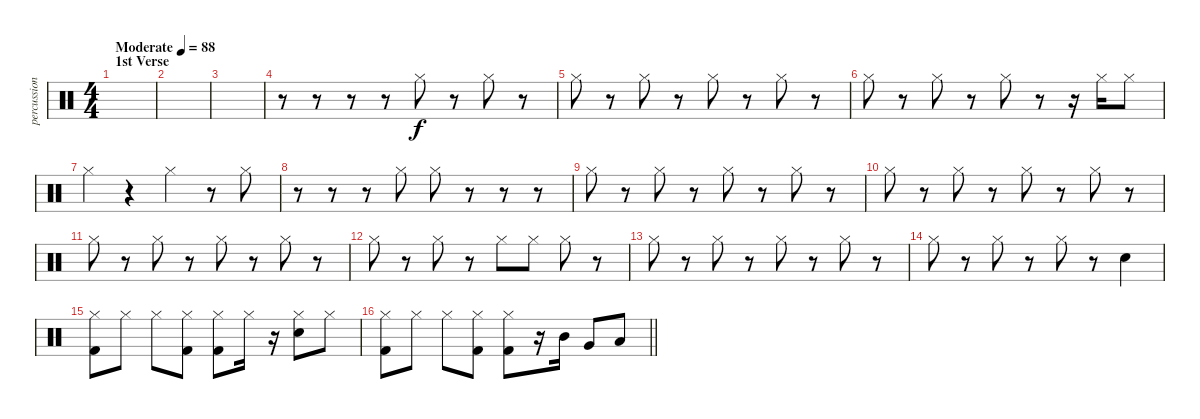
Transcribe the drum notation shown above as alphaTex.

\track ("percussion" "percussion") {instrument percussion}
\staff {score}
\articulation defaults
\ts (4 4)
\section ("" "1st Verse")
\tempo (88 "Moderate")
\clef neutral
\ks c
|
|
|
r.8 r.8 r.8 r.8 "Hi-Hat (closed)".8 r.8 "Hi-Hat (closed)".8 r.8 |
"Hi-Hat (closed)".8 r.8 "Hi-Hat (closed)".8 r.8 "Hi-Hat (closed)".8 r.8 "Hi-Hat (closed)".8 r.8 |
"Hi-Hat (closed)".8 r.8 "Hi-Hat (closed)".8 r.8 "Hi-Hat (closed)".8 r.8 r.16 "Hi-Hat (closed)".16 "Hi-Hat (closed)".8 |
"Hi-Hat (closed)".4 r.4 "Hi-Hat (closed)".4 r.8 "Hi-Hat (closed)".8 |
r.8 r.8 r.8 "Hi-Hat (closed)".8 "Hi-Hat (closed)".8 r.8 r.8 r.8 |
"Hi-Hat (closed)".8 r.8 "Hi-Hat (closed)".8 r.8 "Hi-Hat (closed)".8 r.8 "Hi-Hat (closed)".8 r.8 |
"Hi-Hat (closed)".8 r.8 "Hi-Hat (closed)".8 r.8 "Hi-Hat (closed)".8 r.8 "Hi-Hat (closed)".8 r.8 |
"Hi-Hat (closed)".8 r.8 "Hi-Hat (closed)".8 r.8 "Hi-Hat (closed)".8 r.8 "Hi-Hat (closed)".8 r.8 |
"Hi-Hat (closed)".8 r.8 "Hi-Hat (closed)".8 r.8 "Hi-Hat (closed)".8 "Hi-Hat (closed)".8 "Hi-Hat (closed)".8 r.8 |
"Hi-Hat (closed)".8 r.8 "Hi-Hat (closed)".8 r.8 "Hi-Hat (closed)".8 r.8 "Hi-Hat (closed)".8 r.8 |
"Hi-Hat (closed)".8 r.8 "Hi-Hat (closed)".8 r.8 "Hi-Hat (closed)".8 r.8 "Snare (hit) 2".4 |
("Hi-Hat (closed)" "Kick (hit) 2").8 "Hi-Hat (closed)".8 "Hi-Hat (closed)".8 ("Hi-Hat (closed)" "Kick (hit) 2").8 ("Hi-Hat (closed)" "Kick (hit) 2").8 "Hi-Hat (closed)".16 r.16 ("Snare (hit) 2" "Hi-Hat (closed)").8 "Hi-Hat (closed)".8 |
\barLineRight lightlight
("Hi-Hat (closed)" "Kick (hit) 2").8 "Hi-Hat (closed)".8 "Hi-Hat (closed)".8 ("Hi-Hat (closed)" "Kick (hit) 2").8 ("Hi-Hat (closed)" "Kick (hit) 2").8 r.16 "Mid Tom (hit)".16 "Very Low Tom (hit)".8 "Low Tom (hit)".8
